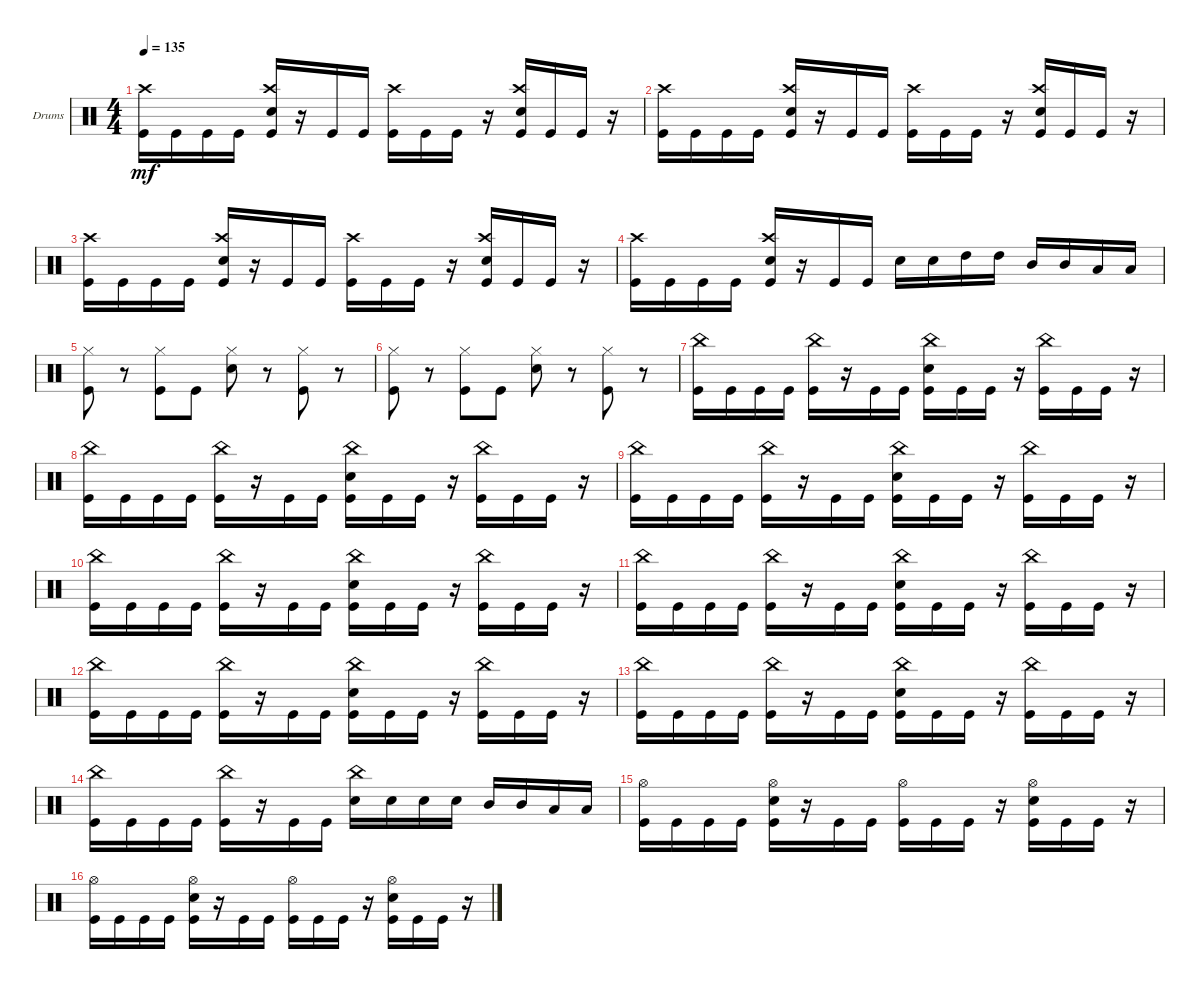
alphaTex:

\defaultSystemsLayout 4
\bracketExtendMode groupsimilarinstruments
\firstSystemTrackNameOrientation horizontal
\otherSystemsTrackNameOrientation horizontal
\track ("Rolo" "Drums") {instrument percussion}
\staff {score}
\articulation defaults
\ts (4 4)
\tempo 135
\clef neutral
\ks c
("Kick (hit)" "Crash high (hit)").16{dy mf} "Kick (hit)".16 "Kick (hit)".16 "Kick (hit)".16 ("Kick (hit)" "Snare (hit) 2" "Crash high (hit)").16 r.16 "Kick (hit)".16 "Kick (hit)".16 ("Kick (hit)" "Crash high (hit)").16 "Kick (hit)".16 "Kick (hit)".16 r.16 ("Kick (hit)" "Snare (hit) 2" "Crash high (hit)").16 "Kick (hit)".16 "Kick (hit)".16 r.16 |
("Kick (hit)" "Crash high (hit)").16 "Kick (hit)".16 "Kick (hit)".16 "Kick (hit)".16 ("Kick (hit)" "Snare (hit) 2" "Crash high (hit)").16 r.16 "Kick (hit)".16 "Kick (hit)".16 ("Kick (hit)" "Crash high (hit)").16 "Kick (hit)".16 "Kick (hit)".16 r.16 ("Kick (hit)" "Snare (hit) 2" "Crash high (hit)").16 "Kick (hit)".16 "Kick (hit)".16 r.16 |
("Kick (hit)" "Crash high (hit)").16 "Kick (hit)".16 "Kick (hit)".16 "Kick (hit)".16 ("Kick (hit)" "Snare (hit) 2" "Crash high (hit)").16 r.16 "Kick (hit)".16 "Kick (hit)".16 ("Kick (hit)" "Crash high (hit)").16 "Kick (hit)".16 "Kick (hit)".16 r.16 ("Kick (hit)" "Snare (hit) 2" "Crash high (hit)").16 "Kick (hit)".16 "Kick (hit)".16 r.16 |
("Kick (hit)" "Crash high (hit)").16 "Kick (hit)".16 "Kick (hit)".16 "Kick (hit)".16 ("Kick (hit)" "Snare (hit) 2" "Crash high (hit)").16 r.16 "Kick (hit)".16 "Kick (hit)".16 "Snare (hit) 2".16 "Snare (hit) 2".16 "High Tom (hit)".16 "High Tom (hit)".16 "Mid Tom (hit)".16 "Mid Tom (hit)".16 "Low Tom (hit)".16 "Low Tom (hit)".16 |
("Kick (hit)" "Hi-Hat (closed)").8 r.8 ("Kick (hit)" "Hi-Hat (closed)").8 "Kick (hit)".8 ("Snare (hit) 2" "Hi-Hat (closed)").8 r.8 ("Kick (hit)" "Hi-Hat (closed)").8 r.8 |
("Kick (hit)" "Hi-Hat (closed)").8 r.8 ("Kick (hit)" "Hi-Hat (closed)").8 "Kick (hit)".8 ("Snare (hit) 2" "Hi-Hat (closed)").8 r.8 ("Kick (hit)" "Hi-Hat (closed)").8 r.8 |
("Kick (hit)" "China (hit)").16 "Kick (hit)".16 "Kick (hit)".16 "Kick (hit)".16 ("Kick (hit)" "China (hit)").16 r.16 "Kick (hit)".16 "Kick (hit)".16 ("Kick (hit)" "Snare (hit) 2" "China (hit)").16 "Kick (hit)".16 "Kick (hit)".16 r.16 ("Kick (hit)" "China (hit)").16 "Kick (hit)".16 "Kick (hit)".16 r.16 |
("Kick (hit)" "China (hit)").16 "Kick (hit)".16 "Kick (hit)".16 "Kick (hit)".16 ("Kick (hit)" "China (hit)").16 r.16 "Kick (hit)".16 "Kick (hit)".16 ("Kick (hit)" "Snare (hit) 2" "China (hit)").16 "Kick (hit)".16 "Kick (hit)".16 r.16 ("Kick (hit)" "China (hit)").16 "Kick (hit)".16 "Kick (hit)".16 r.16 |
("Kick (hit)" "China (hit)").16 "Kick (hit)".16 "Kick (hit)".16 "Kick (hit)".16 ("Kick (hit)" "China (hit)").16 r.16 "Kick (hit)".16 "Kick (hit)".16 ("Kick (hit)" "Snare (hit) 2" "China (hit)").16 "Kick (hit)".16 "Kick (hit)".16 r.16 ("Kick (hit)" "China (hit)").16 "Kick (hit)".16 "Kick (hit)".16 r.16 |
("Kick (hit)" "China (hit)").16 "Kick (hit)".16 "Kick (hit)".16 "Kick (hit)".16 ("Kick (hit)" "China (hit)").16 r.16 "Kick (hit)".16 "Kick (hit)".16 ("Kick (hit)" "Snare (hit) 2" "China (hit)").16 "Kick (hit)".16 "Kick (hit)".16 r.16 ("Kick (hit)" "China (hit)").16 "Kick (hit)".16 "Kick (hit)".16 r.16 |
("Kick (hit)" "China (hit)").16 "Kick (hit)".16 "Kick (hit)".16 "Kick (hit)".16 ("Kick (hit)" "China (hit)").16 r.16 "Kick (hit)".16 "Kick (hit)".16 ("Kick (hit)" "Snare (hit) 2" "China (hit)").16 "Kick (hit)".16 "Kick (hit)".16 r.16 ("Kick (hit)" "China (hit)").16 "Kick (hit)".16 "Kick (hit)".16 r.16 |
("Kick (hit)" "China (hit)").16 "Kick (hit)".16 "Kick (hit)".16 "Kick (hit)".16 ("Kick (hit)" "China (hit)").16 r.16 "Kick (hit)".16 "Kick (hit)".16 ("Kick (hit)" "Snare (hit) 2" "China (hit)").16 "Kick (hit)".16 "Kick (hit)".16 r.16 ("Kick (hit)" "China (hit)").16 "Kick (hit)".16 "Kick (hit)".16 r.16 |
("Kick (hit)" "China (hit)").16 "Kick (hit)".16 "Kick (hit)".16 "Kick (hit)".16 ("Kick (hit)" "China (hit)").16 r.16 "Kick (hit)".16 "Kick (hit)".16 ("Kick (hit)" "Snare (hit) 2" "China (hit)").16 "Kick (hit)".16 "Kick (hit)".16 r.16 ("Kick (hit)" "China (hit)").16 "Kick (hit)".16 "Kick (hit)".16 r.16 |
("Kick (hit)" "China (hit)").16 "Kick (hit)".16 "Kick (hit)".16 "Kick (hit)".16 ("Kick (hit)" "China (hit)").16 r.16 "Kick (hit)".16 "Kick (hit)".16 ("Snare (hit) 2" "China (hit)").16 "Snare (hit) 2".16 "Snare (hit) 2".16 "Snare (hit) 2".16 "Mid Tom (hit)".16 "Mid Tom (hit)".16 "Low Tom (hit)".16 "Low Tom (hit)".16 |
("Kick (hit)" "Hi-Hat (open)").16 "Kick (hit)".16 "Kick (hit)".16 "Kick (hit)".16 ("Kick (hit)" "Snare (hit) 2" "Hi-Hat (open)").16 r.16 "Kick (hit)".16 "Kick (hit)".16 ("Kick (hit)" "Hi-Hat (open)").16 "Kick (hit)".16 "Kick (hit)".16 r.16 ("Kick (hit)" "Snare (hit) 2" "Hi-Hat (open)").16 "Kick (hit)".16 "Kick (hit)".16 r.16 |
("Kick (hit)" "Hi-Hat (open)").16 "Kick (hit)".16 "Kick (hit)".16 "Kick (hit)".16 ("Kick (hit)" "Snare (hit) 2" "Hi-Hat (open)").16 r.16 "Kick (hit)".16 "Kick (hit)".16 ("Kick (hit)" "Hi-Hat (open)").16 "Kick (hit)".16 "Kick (hit)".16 r.16 ("Kick (hit)" "Snare (hit) 2" "Hi-Hat (open)").16 "Kick (hit)".16 "Kick (hit)".16 r.16
